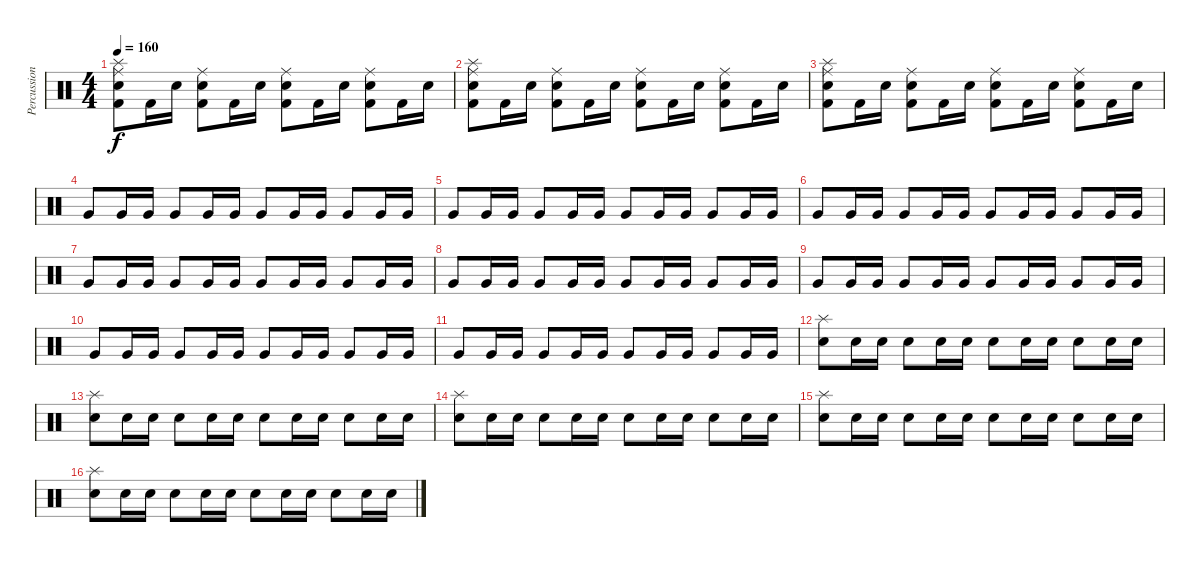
\track ("Percussions" "Percussion") {instrument percussion}
\staff {score}
\articulation defaults
\ts (4 4)
\tempo 160
\clef neutral
\ks c
("Ride (middle)" "Splash (hit)" "Electric Snare (hit)" "Kick (hit) 2").8{dy f} "Kick (hit) 2".16 "Electric Snare (hit)".16 ("Kick (hit) 2" "Ride (middle)" "Electric Snare (hit)").8 "Kick (hit) 2".16 "Electric Snare (hit)".16 ("Kick (hit) 2" "Ride (middle)" "Electric Snare (hit)").8 "Kick (hit) 2".16 "Electric Snare (hit)".16 ("Electric Snare (hit)" "Ride (middle)" "Kick (hit) 2").8 "Kick (hit) 2".16 "Electric Snare (hit)".16 |
("Ride (middle)" "Splash (hit)" "Electric Snare (hit)" "Kick (hit) 2").8 "Kick (hit) 2".16 "Electric Snare (hit)".16 ("Kick (hit) 2" "Ride (middle)" "Electric Snare (hit)").8 "Kick (hit) 2".16 "Electric Snare (hit)".16 ("Kick (hit) 2" "Ride (middle)" "Electric Snare (hit)").8 "Kick (hit) 2".16 "Electric Snare (hit)".16 ("Electric Snare (hit)" "Ride (middle)" "Kick (hit) 2").8 "Kick (hit) 2".16 "Electric Snare (hit)".16 |
("Ride (middle)" "Splash (hit)" "Electric Snare (hit)" "Kick (hit) 2").8 "Kick (hit) 2".16 "Electric Snare (hit)".16 ("Kick (hit) 2" "Ride (middle)" "Electric Snare (hit)").8 "Kick (hit) 2".16 "Electric Snare (hit)".16 ("Kick (hit) 2" "Ride (middle)" "Electric Snare (hit)").8 "Kick (hit) 2".16 "Electric Snare (hit)".16 ("Electric Snare (hit)" "Ride (middle)" "Kick (hit) 2").8 "Kick (hit) 2".16 "Electric Snare (hit)".16 |
"Very Low Tom (hit)".8 "Very Low Tom (hit)".16 "Very Low Tom (hit)".16 "Very Low Tom (hit)".8 "Very Low Tom (hit)".16 "Very Low Tom (hit)".16 "Very Low Tom (hit)".8 "Very Low Tom (hit)".16 "Very Low Tom (hit)".16 "Very Low Tom (hit)".8 "Very Low Tom (hit)".16 "Very Low Tom (hit)".16 |
"Very Low Tom (hit)".8 "Very Low Tom (hit)".16 "Very Low Tom (hit)".16 "Very Low Tom (hit)".8 "Very Low Tom (hit)".16 "Very Low Tom (hit)".16 "Very Low Tom (hit)".8 "Very Low Tom (hit)".16 "Very Low Tom (hit)".16 "Very Low Tom (hit)".8 "Very Low Tom (hit)".16 "Very Low Tom (hit)".16 |
"Very Low Tom (hit)".8 "Very Low Tom (hit)".16 "Very Low Tom (hit)".16 "Very Low Tom (hit)".8 "Very Low Tom (hit)".16 "Very Low Tom (hit)".16 "Very Low Tom (hit)".8 "Very Low Tom (hit)".16 "Very Low Tom (hit)".16 "Very Low Tom (hit)".8 "Very Low Tom (hit)".16 "Very Low Tom (hit)".16 |
"Very Low Tom (hit)".8 "Very Low Tom (hit)".16 "Very Low Tom (hit)".16 "Very Low Tom (hit)".8 "Very Low Tom (hit)".16 "Very Low Tom (hit)".16 "Very Low Tom (hit)".8 "Very Low Tom (hit)".16 "Very Low Tom (hit)".16 "Very Low Tom (hit)".8 "Very Low Tom (hit)".16 "Very Low Tom (hit)".16 |
"Very Low Tom (hit)".8 "Very Low Tom (hit)".16 "Very Low Tom (hit)".16 "Very Low Tom (hit)".8 "Very Low Tom (hit)".16 "Very Low Tom (hit)".16 "Very Low Tom (hit)".8 "Very Low Tom (hit)".16 "Very Low Tom (hit)".16 "Very Low Tom (hit)".8 "Very Low Tom (hit)".16 "Very Low Tom (hit)".16 |
"Very Low Tom (hit)".8 "Very Low Tom (hit)".16 "Very Low Tom (hit)".16 "Very Low Tom (hit)".8 "Very Low Tom (hit)".16 "Very Low Tom (hit)".16 "Very Low Tom (hit)".8 "Very Low Tom (hit)".16 "Very Low Tom (hit)".16 "Very Low Tom (hit)".8 "Very Low Tom (hit)".16 "Very Low Tom (hit)".16 |
"Very Low Tom (hit)".8 "Very Low Tom (hit)".16 "Very Low Tom (hit)".16 "Very Low Tom (hit)".8 "Very Low Tom (hit)".16 "Very Low Tom (hit)".16 "Very Low Tom (hit)".8 "Very Low Tom (hit)".16 "Very Low Tom (hit)".16 "Very Low Tom (hit)".8 "Very Low Tom (hit)".16 "Very Low Tom (hit)".16 |
"Very Low Tom (hit)".8 "Very Low Tom (hit)".16 "Very Low Tom (hit)".16 "Very Low Tom (hit)".8 "Very Low Tom (hit)".16 "Very Low Tom (hit)".16 "Very Low Tom (hit)".8 "Very Low Tom (hit)".16 "Very Low Tom (hit)".16 "Very Low Tom (hit)".8 "Very Low Tom (hit)".16 "Very Low Tom (hit)".16 |
("Splash (hit)" "Electric Snare (hit)").8 "Electric Snare (hit)".16 "Electric Snare (hit)".16 "Electric Snare (hit)".8 "Electric Snare (hit)".16 "Electric Snare (hit)".16 "Electric Snare (hit)".8 "Electric Snare (hit)".16 "Electric Snare (hit)".16 "Electric Snare (hit)".8 "Electric Snare (hit)".16 "Electric Snare (hit)".16 |
("Splash (hit)" "Electric Snare (hit)").8 "Electric Snare (hit)".16 "Electric Snare (hit)".16 "Electric Snare (hit)".8 "Electric Snare (hit)".16 "Electric Snare (hit)".16 "Electric Snare (hit)".8 "Electric Snare (hit)".16 "Electric Snare (hit)".16 "Electric Snare (hit)".8 "Electric Snare (hit)".16 "Electric Snare (hit)".16 |
("Splash (hit)" "Electric Snare (hit)").8 "Electric Snare (hit)".16 "Electric Snare (hit)".16 "Electric Snare (hit)".8 "Electric Snare (hit)".16 "Electric Snare (hit)".16 "Electric Snare (hit)".8 "Electric Snare (hit)".16 "Electric Snare (hit)".16 "Electric Snare (hit)".8 "Electric Snare (hit)".16 "Electric Snare (hit)".16 |
("Splash (hit)" "Electric Snare (hit)").8 "Electric Snare (hit)".16 "Electric Snare (hit)".16 "Electric Snare (hit)".8 "Electric Snare (hit)".16 "Electric Snare (hit)".16 "Electric Snare (hit)".8 "Electric Snare (hit)".16 "Electric Snare (hit)".16 "Electric Snare (hit)".8 "Electric Snare (hit)".16 "Electric Snare (hit)".16 |
("Splash (hit)" "Electric Snare (hit)").8 "Electric Snare (hit)".16 "Electric Snare (hit)".16 "Electric Snare (hit)".8 "Electric Snare (hit)".16 "Electric Snare (hit)".16 "Electric Snare (hit)".8 "Electric Snare (hit)".16 "Electric Snare (hit)".16 "Electric Snare (hit)".8 "Electric Snare (hit)".16 "Electric Snare (hit)".16
